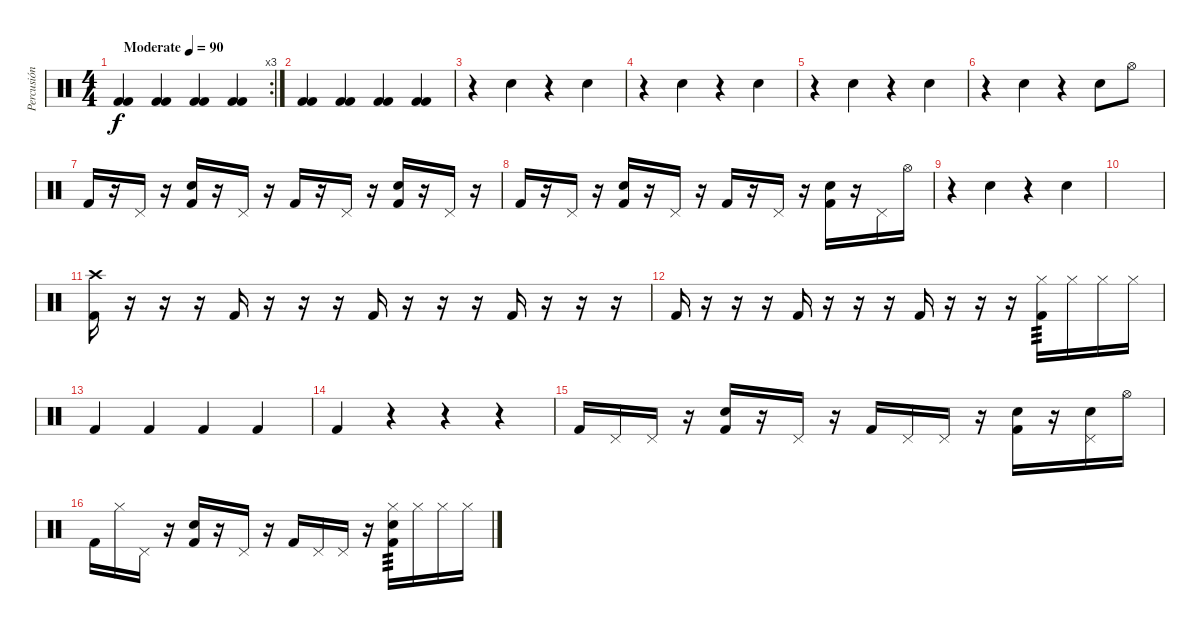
\track ("Percusión" "Percusión") {instrument percussion}
\staff {score}
\articulation defaults
\rc 3
\ts (4 4)
\tempo (90 "Moderate")
\clef neutral
\ks c
("Kick (hit) 2" "Kick (hit) 2").4{dy f} ("Kick (hit) 2" "Kick (hit) 2").4 ("Kick (hit) 2" "Kick (hit) 2").4 ("Kick (hit) 2" "Kick (hit) 2").4 |
("Kick (hit) 2" "Kick (hit) 2").4 ("Kick (hit) 2" "Kick (hit) 2").4 ("Kick (hit) 2" "Kick (hit) 2").4 ("Kick (hit) 2" "Kick (hit) 2").4 |
r.4 "Electric Snare (hit)".4 r.4 "Electric Snare (hit)".4 |
r.4 "Electric Snare (hit)".4 r.4 "Electric Snare (hit)".4 |
r.4 "Electric Snare (hit)".4 r.4 "Electric Snare (hit)".4 |
r.4 "Electric Snare (hit)".4 r.4 "Electric Snare (hit)".8 "Hi-Hat (open)".8 |
"Kick (hit) 2".16 r.16 "Pedal Hi-Hat (hit)".16 r.16 ("Electric Snare (hit)" "Kick (hit) 2").16 r.16 "Pedal Hi-Hat (hit)".16 r.16 "Kick (hit) 2".16 r.16 "Pedal Hi-Hat (hit)".16 r.16 ("Electric Snare (hit)" "Kick (hit) 2").16 r.16 "Pedal Hi-Hat (hit)".16 r.16 |
"Kick (hit) 2".16 r.16 "Pedal Hi-Hat (hit)".16 r.16 ("Electric Snare (hit)" "Kick (hit) 2").16 r.16 "Pedal Hi-Hat (hit)".16 r.16 "Kick (hit) 2".16 r.16 "Pedal Hi-Hat (hit)".16 r.16 ("Electric Snare (hit)" "Kick (hit) 2").16 r.16 "Pedal Hi-Hat (hit)".16 "Hi-Hat (open)".16 |
r.4 "Electric Snare (hit)".4 r.4 "Electric Snare (hit)".4 |
|
("Crash high (hit)" "Kick (hit) 2").16 r.16 r.16 r.16 "Kick (hit) 2".16 r.16 r.16 r.16 "Kick (hit) 2".16 r.16 r.16 r.16 "Kick (hit) 2".16 r.16 r.16 r.16 |
"Kick (hit) 2".16 r.16 r.16 r.16 "Kick (hit) 2".16 r.16 r.16 r.16 "Kick (hit) 2".16 r.16 r.16 r.16 ("Hi-Hat (closed)" "Kick (hit) 2").16{tp 3} "Hi-Hat (closed)".16 "Hi-Hat (closed)".16 "Hi-Hat (closed)".16 |
"Kick (hit) 2".4 "Kick (hit) 2".4 "Kick (hit) 2".4 "Kick (hit) 2".4 |
"Kick (hit) 2".4 r.4 r.4 r.4 |
"Kick (hit) 2".16 "Pedal Hi-Hat (hit)".16 "Pedal Hi-Hat (hit)".16 r.16 ("Electric Snare (hit)" "Kick (hit) 2").16 r.16 "Pedal Hi-Hat (hit)".16 r.16 "Kick (hit) 2".16 "Pedal Hi-Hat (hit)".16 "Pedal Hi-Hat (hit)".16 r.16 ("Electric Snare (hit)" "Kick (hit) 2").16 r.16 ("Electric Snare (hit)" "Pedal Hi-Hat (hit)").16 "Hi-Hat (open)".16 |
"Kick (hit) 2".16 "Hi-Hat (closed)".16 "Pedal Hi-Hat (hit)".16 r.16 ("Electric Snare (hit)" "Kick (hit) 2").16 r.16 "Pedal Hi-Hat (hit)".16 r.16 "Kick (hit) 2".16 "Pedal Hi-Hat (hit)".16 "Pedal Hi-Hat (hit)".16 r.16 ("Electric Snare (hit)" "Hi-Hat (closed)" "Kick (hit) 2").16{tp 3} "Hi-Hat (closed)".16 "Hi-Hat (closed)".16 "Hi-Hat (closed)".16
